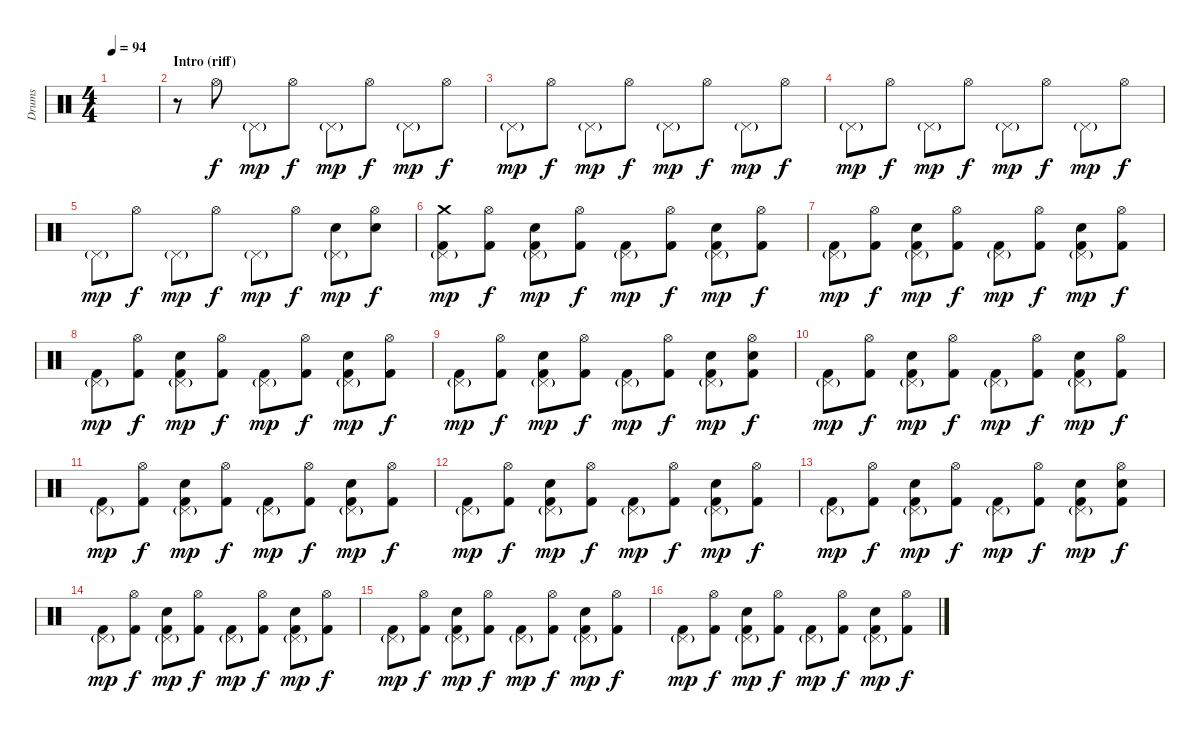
\track ("Drums" "Drums") {instrument percussion}
\staff {score}
\articulation defaults
\ts (4 4)
\tempo 94
\clef neutral
\ks c
|
\section ("" "Intro (riff)")
r.8 "Hi-Hat (open)".8 "Pedal Hi-Hat (hit)"{g}.8{dy mp} "Hi-Hat (open)".8{dy f} "Pedal Hi-Hat (hit)"{g}.8{dy mp} "Hi-Hat (open)".8{dy f} "Pedal Hi-Hat (hit)"{g}.8{dy mp} "Hi-Hat (open)".8{dy f} |
"Pedal Hi-Hat (hit)"{g}.8{dy mp} "Hi-Hat (open)".8{dy f} "Pedal Hi-Hat (hit)"{g}.8{dy mp} "Hi-Hat (open)".8{dy f} "Pedal Hi-Hat (hit)"{g}.8{dy mp} "Hi-Hat (open)".8{dy f} "Pedal Hi-Hat (hit)"{g}.8{dy mp} "Hi-Hat (open)".8{dy f} |
"Pedal Hi-Hat (hit)"{g}.8{dy mp} "Hi-Hat (open)".8{dy f} "Pedal Hi-Hat (hit)"{g}.8{dy mp} "Hi-Hat (open)".8{dy f} "Pedal Hi-Hat (hit)"{g}.8{dy mp} "Hi-Hat (open)".8{dy f} "Pedal Hi-Hat (hit)"{g}.8{dy mp} "Hi-Hat (open)".8{dy f} |
"Pedal Hi-Hat (hit)"{g}.8{dy mp} "Hi-Hat (open)".8{dy f} "Pedal Hi-Hat (hit)"{g}.8{dy mp} "Hi-Hat (open)".8{dy f} "Pedal Hi-Hat (hit)"{g}.8{dy mp} "Hi-Hat (open)".8{dy f} ("Pedal Hi-Hat (hit)"{g} "Snare (hit) 2").8{dy mp} ("Hi-Hat (open)" "Snare (hit) 2").8{dy f} |
("Pedal Hi-Hat (hit)"{g} "Crash medium (hit)" "Kick (hit) 2").8{dy mp} ("Hi-Hat (open)" "Kick (hit) 2").8{dy f} ("Pedal Hi-Hat (hit)"{g} "Snare (hit) 2" "Kick (hit) 2").8{dy mp} ("Hi-Hat (open)" "Kick (hit) 2").8{dy f} ("Pedal Hi-Hat (hit)"{g} "Kick (hit) 2").8{dy mp} ("Hi-Hat (open)" "Kick (hit) 2").8{dy f} ("Pedal Hi-Hat (hit)"{g} "Snare (hit) 2" "Kick (hit) 2").8{dy mp} ("Hi-Hat (open)" "Kick (hit) 2").8{dy f} |
("Pedal Hi-Hat (hit)"{g} "Kick (hit) 2").8{dy mp} ("Hi-Hat (open)" "Kick (hit) 2").8{dy f} ("Pedal Hi-Hat (hit)"{g} "Snare (hit) 2" "Kick (hit) 2").8{dy mp} ("Hi-Hat (open)" "Kick (hit) 2").8{dy f} ("Pedal Hi-Hat (hit)"{g} "Kick (hit) 2").8{dy mp} ("Hi-Hat (open)" "Kick (hit) 2").8{dy f} ("Pedal Hi-Hat (hit)"{g} "Snare (hit) 2" "Kick (hit) 2").8{dy mp} ("Hi-Hat (open)" "Kick (hit) 2").8{dy f} |
("Pedal Hi-Hat (hit)"{g} "Kick (hit) 2").8{dy mp} ("Hi-Hat (open)" "Kick (hit) 2").8{dy f} ("Pedal Hi-Hat (hit)"{g} "Snare (hit) 2" "Kick (hit) 2").8{dy mp} ("Hi-Hat (open)" "Kick (hit) 2").8{dy f} ("Pedal Hi-Hat (hit)"{g} "Kick (hit) 2").8{dy mp} ("Hi-Hat (open)" "Kick (hit) 2").8{dy f} ("Pedal Hi-Hat (hit)"{g} "Snare (hit) 2" "Kick (hit) 2").8{dy mp} ("Hi-Hat (open)" "Kick (hit) 2").8{dy f} |
("Pedal Hi-Hat (hit)"{g} "Kick (hit) 2").8{dy mp} ("Hi-Hat (open)" "Kick (hit) 2").8{dy f} ("Pedal Hi-Hat (hit)"{g} "Snare (hit) 2" "Kick (hit) 2").8{dy mp} ("Hi-Hat (open)" "Kick (hit) 2").8{dy f} ("Pedal Hi-Hat (hit)"{g} "Kick (hit) 2").8{dy mp} ("Hi-Hat (open)" "Kick (hit) 2").8{dy f} ("Pedal Hi-Hat (hit)"{g} "Snare (hit) 2" "Kick (hit) 2").8{dy mp} ("Hi-Hat (open)" "Snare (hit) 2" "Kick (hit) 2").8{dy f} |
("Pedal Hi-Hat (hit)"{g} "Kick (hit) 2").8{dy mp} ("Hi-Hat (open)" "Kick (hit) 2").8{dy f} ("Pedal Hi-Hat (hit)"{g} "Snare (hit) 2" "Kick (hit) 2").8{dy mp} ("Hi-Hat (open)" "Kick (hit) 2").8{dy f} ("Pedal Hi-Hat (hit)"{g} "Kick (hit) 2").8{dy mp} ("Hi-Hat (open)" "Kick (hit) 2").8{dy f} ("Pedal Hi-Hat (hit)"{g} "Snare (hit) 2" "Kick (hit) 2").8{dy mp} ("Hi-Hat (open)" "Kick (hit) 2").8{dy f} |
("Pedal Hi-Hat (hit)"{g} "Kick (hit) 2").8{dy mp} ("Hi-Hat (open)" "Kick (hit) 2").8{dy f} ("Pedal Hi-Hat (hit)"{g} "Snare (hit) 2" "Kick (hit) 2").8{dy mp} ("Hi-Hat (open)" "Kick (hit) 2").8{dy f} ("Pedal Hi-Hat (hit)"{g} "Kick (hit) 2").8{dy mp} ("Hi-Hat (open)" "Kick (hit) 2").8{dy f} ("Pedal Hi-Hat (hit)"{g} "Snare (hit) 2" "Kick (hit) 2").8{dy mp} ("Hi-Hat (open)" "Kick (hit) 2").8{dy f} |
("Pedal Hi-Hat (hit)"{g} "Kick (hit) 2").8{dy mp} ("Hi-Hat (open)" "Kick (hit) 2").8{dy f} ("Pedal Hi-Hat (hit)"{g} "Snare (hit) 2" "Kick (hit) 2").8{dy mp} ("Hi-Hat (open)" "Kick (hit) 2").8{dy f} ("Pedal Hi-Hat (hit)"{g} "Kick (hit) 2").8{dy mp} ("Hi-Hat (open)" "Kick (hit) 2").8{dy f} ("Pedal Hi-Hat (hit)"{g} "Snare (hit) 2" "Kick (hit) 2").8{dy mp} ("Hi-Hat (open)" "Kick (hit) 2").8{dy f} |
("Pedal Hi-Hat (hit)"{g} "Kick (hit) 2").8{dy mp} ("Hi-Hat (open)" "Kick (hit) 2").8{dy f} ("Pedal Hi-Hat (hit)"{g} "Snare (hit) 2" "Kick (hit) 2").8{dy mp} ("Hi-Hat (open)" "Kick (hit) 2").8{dy f} ("Pedal Hi-Hat (hit)"{g} "Kick (hit) 2").8{dy mp} ("Hi-Hat (open)" "Kick (hit) 2").8{dy f} ("Pedal Hi-Hat (hit)"{g} "Snare (hit) 2" "Kick (hit) 2").8{dy mp} ("Hi-Hat (open)" "Snare (hit) 2" "Kick (hit) 2").8{dy f} |
("Pedal Hi-Hat (hit)"{g} "Kick (hit) 2").8{dy mp} ("Hi-Hat (open)" "Kick (hit) 2").8{dy f} ("Pedal Hi-Hat (hit)"{g} "Snare (hit) 2" "Kick (hit) 2").8{dy mp} ("Hi-Hat (open)" "Kick (hit) 2").8{dy f} ("Pedal Hi-Hat (hit)"{g} "Kick (hit) 2").8{dy mp} ("Hi-Hat (open)" "Kick (hit) 2").8{dy f} ("Pedal Hi-Hat (hit)"{g} "Snare (hit) 2" "Kick (hit) 2").8{dy mp} ("Hi-Hat (open)" "Kick (hit) 2").8{dy f} |
("Pedal Hi-Hat (hit)"{g} "Kick (hit) 2").8{dy mp} ("Hi-Hat (open)" "Kick (hit) 2").8{dy f} ("Pedal Hi-Hat (hit)"{g} "Snare (hit) 2" "Kick (hit) 2").8{dy mp} ("Hi-Hat (open)" "Kick (hit) 2").8{dy f} ("Pedal Hi-Hat (hit)"{g} "Kick (hit) 2").8{dy mp} ("Hi-Hat (open)" "Kick (hit) 2").8{dy f} ("Pedal Hi-Hat (hit)"{g} "Snare (hit) 2" "Kick (hit) 2").8{dy mp} ("Hi-Hat (open)" "Kick (hit) 2").8{dy f} |
("Pedal Hi-Hat (hit)"{g} "Kick (hit) 2").8{dy mp} ("Hi-Hat (open)" "Kick (hit) 2").8{dy f} ("Pedal Hi-Hat (hit)"{g} "Snare (hit) 2" "Kick (hit) 2").8{dy mp} ("Hi-Hat (open)" "Kick (hit) 2").8{dy f} ("Pedal Hi-Hat (hit)"{g} "Kick (hit) 2").8{dy mp} ("Hi-Hat (open)" "Kick (hit) 2").8{dy f} ("Pedal Hi-Hat (hit)"{g} "Snare (hit) 2" "Kick (hit) 2").8{dy mp} ("Hi-Hat (open)" "Kick (hit) 2").8{dy f}
